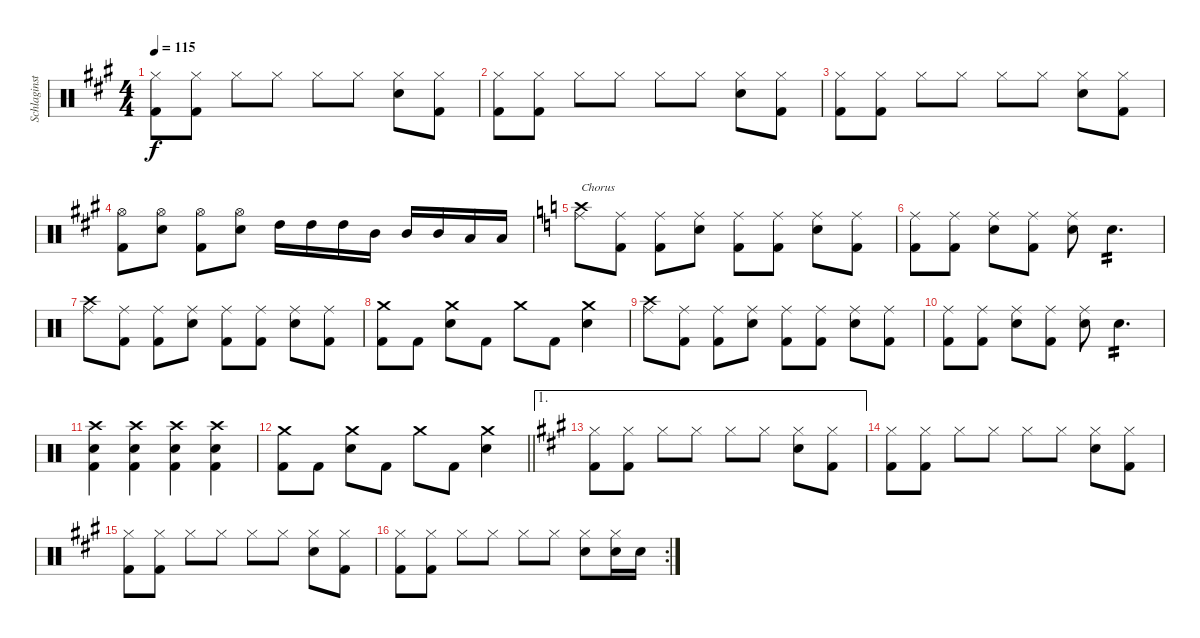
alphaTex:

\track ("Schlaginstrumente - Auswahl" "Schlaginst") {instrument percussion}
\staff {score}
\articulation defaults
\ts (4 4)
\tempo 115
\clef neutral
\ks a
("Hi-Hat (closed)" "Kick (hit) 2").8{dy f} ("Hi-Hat (closed)" "Kick (hit) 2").8 "Hi-Hat (closed)".8 "Hi-Hat (closed)".8 "Hi-Hat (closed)".8 "Hi-Hat (closed)".8 ("Snare (hit) 2" "Hi-Hat (closed)").8 ("Hi-Hat (closed)" "Kick (hit) 2").8 |
("Hi-Hat (closed)" "Kick (hit) 2").8 ("Hi-Hat (closed)" "Kick (hit) 2").8 "Hi-Hat (closed)".8 "Hi-Hat (closed)".8 "Hi-Hat (closed)".8 "Hi-Hat (closed)".8 ("Snare (hit) 2" "Hi-Hat (closed)").8 ("Hi-Hat (closed)" "Kick (hit) 2").8 |
("Hi-Hat (closed)" "Kick (hit) 2").8 ("Hi-Hat (closed)" "Kick (hit) 2").8 "Hi-Hat (closed)".8 "Hi-Hat (closed)".8 "Hi-Hat (closed)".8 "Hi-Hat (closed)".8 ("Snare (hit) 2" "Hi-Hat (closed)").8 ("Hi-Hat (closed)" "Kick (hit) 2").8 |
("Hi-Hat (open)" "Kick (hit) 2").8 ("Hi-Hat (open)" "Snare (hit) 2").8 ("Hi-Hat (open)" "Kick (hit) 2").8 ("Hi-Hat (open)" "Snare (hit) 2").8 "High Tom (hit)".16 "High Tom (hit)".16 "High Tom (hit)".16 "Mid Tom (hit)".16 "Mid Tom (hit)".16 "Mid Tom (hit)".16 "Low Tom (hit)".16 "Low Tom (hit)".16 |
\ks c
("Ride (middle)" "Crash high (hit)").8{txt "Chorus"} ("Ride (middle)" "Kick (hit) 2").8 ("Ride (middle)" "Kick (hit) 2").8 ("Ride (middle)" "Snare (hit) 2").8 ("Ride (middle)" "Kick (hit) 2").8 ("Ride (middle)" "Kick (hit) 2").8 ("Ride (middle)" "Snare (hit) 2").8 ("Ride (middle)" "Kick (hit) 2").8 |
("Ride (middle)" "Kick (hit) 2").8 ("Ride (middle)" "Kick (hit) 2").8 ("Ride (middle)" "Snare (hit) 2").8 ("Ride (middle)" "Kick (hit) 2").8 ("Ride (middle)" "Snare (hit) 2").8 "Snare (hit) 2".4{d tp 2} |
("Ride (middle)" "Crash high (hit)").8 ("Ride (middle)" "Kick (hit) 2").8 ("Ride (middle)" "Kick (hit) 2").8 ("Ride (middle)" "Snare (hit) 2").8 ("Ride (middle)" "Kick (hit) 2").8 ("Ride (middle)" "Kick (hit) 2").8 ("Ride (middle)" "Snare (hit) 2").8 ("Ride (middle)" "Kick (hit) 2").8 |
("Crash medium (hit)" "Kick (hit) 2").8 "Kick (hit) 2".8 ("Crash medium (hit)" "Snare (hit) 2").8 "Kick (hit) 2".8 "Crash medium (hit)".8 "Kick (hit) 2".8 ("Crash medium (hit)" "Snare (hit) 2").4 |
("Ride (middle)" "Crash high (hit)").8 ("Ride (middle)" "Kick (hit) 2").8 ("Ride (middle)" "Kick (hit) 2").8 ("Ride (middle)" "Snare (hit) 2").8 ("Ride (middle)" "Kick (hit) 2").8 ("Ride (middle)" "Kick (hit) 2").8 ("Ride (middle)" "Snare (hit) 2").8 ("Ride (middle)" "Kick (hit) 2").8 |
("Ride (middle)" "Kick (hit) 2").8 ("Ride (middle)" "Kick (hit) 2").8 ("Ride (middle)" "Snare (hit) 2").8 ("Ride (middle)" "Kick (hit) 2").8 ("Ride (middle)" "Snare (hit) 2").8 "Snare (hit) 2".4{d tp 2} |
("Crash high (hit)" "Snare (hit) 2" "Kick (hit) 2").4 ("Crash high (hit)" "Snare (hit) 2" "Kick (hit) 2").4 ("Crash high (hit)" "Snare (hit) 2" "Kick (hit) 2").4 ("Crash high (hit)" "Snare (hit) 2" "Kick (hit) 2").4 |
\barLineRight lightlight
("Crash medium (hit)" "Kick (hit) 2").8 "Kick (hit) 2".8 ("Crash medium (hit)" "Snare (hit) 2").8 "Kick (hit) 2".8 "Crash medium (hit)".8 "Kick (hit) 2".8 ("Crash medium (hit)" "Snare (hit) 2").4 |
\ae 1
\ks a
("Hi-Hat (closed)" "Kick (hit) 2").8 ("Hi-Hat (closed)" "Kick (hit) 2").8 "Hi-Hat (closed)".8 "Hi-Hat (closed)".8 "Hi-Hat (closed)".8 "Hi-Hat (closed)".8 ("Snare (hit) 2" "Hi-Hat (closed)").8 ("Hi-Hat (closed)" "Kick (hit) 2").8 |
("Hi-Hat (closed)" "Kick (hit) 2").8 ("Hi-Hat (closed)" "Kick (hit) 2").8 "Hi-Hat (closed)".8 "Hi-Hat (closed)".8 "Hi-Hat (closed)".8 "Hi-Hat (closed)".8 ("Snare (hit) 2" "Hi-Hat (closed)").8 ("Hi-Hat (closed)" "Kick (hit) 2").8 |
("Hi-Hat (closed)" "Kick (hit) 2").8 ("Hi-Hat (closed)" "Kick (hit) 2").8 "Hi-Hat (closed)".8 "Hi-Hat (closed)".8 "Hi-Hat (closed)".8 "Hi-Hat (closed)".8 ("Snare (hit) 2" "Hi-Hat (closed)").8 ("Hi-Hat (closed)" "Kick (hit) 2").8 |
\rc 2
("Hi-Hat (closed)" "Kick (hit) 2").8 ("Hi-Hat (closed)" "Kick (hit) 2").8 "Hi-Hat (closed)".8 "Hi-Hat (closed)".8 "Hi-Hat (closed)".8 "Hi-Hat (closed)".8 ("Snare (hit) 2" "Hi-Hat (closed)").8 ("Snare (hit) 2" "Hi-Hat (closed)").16 "Snare (hit) 2".16
